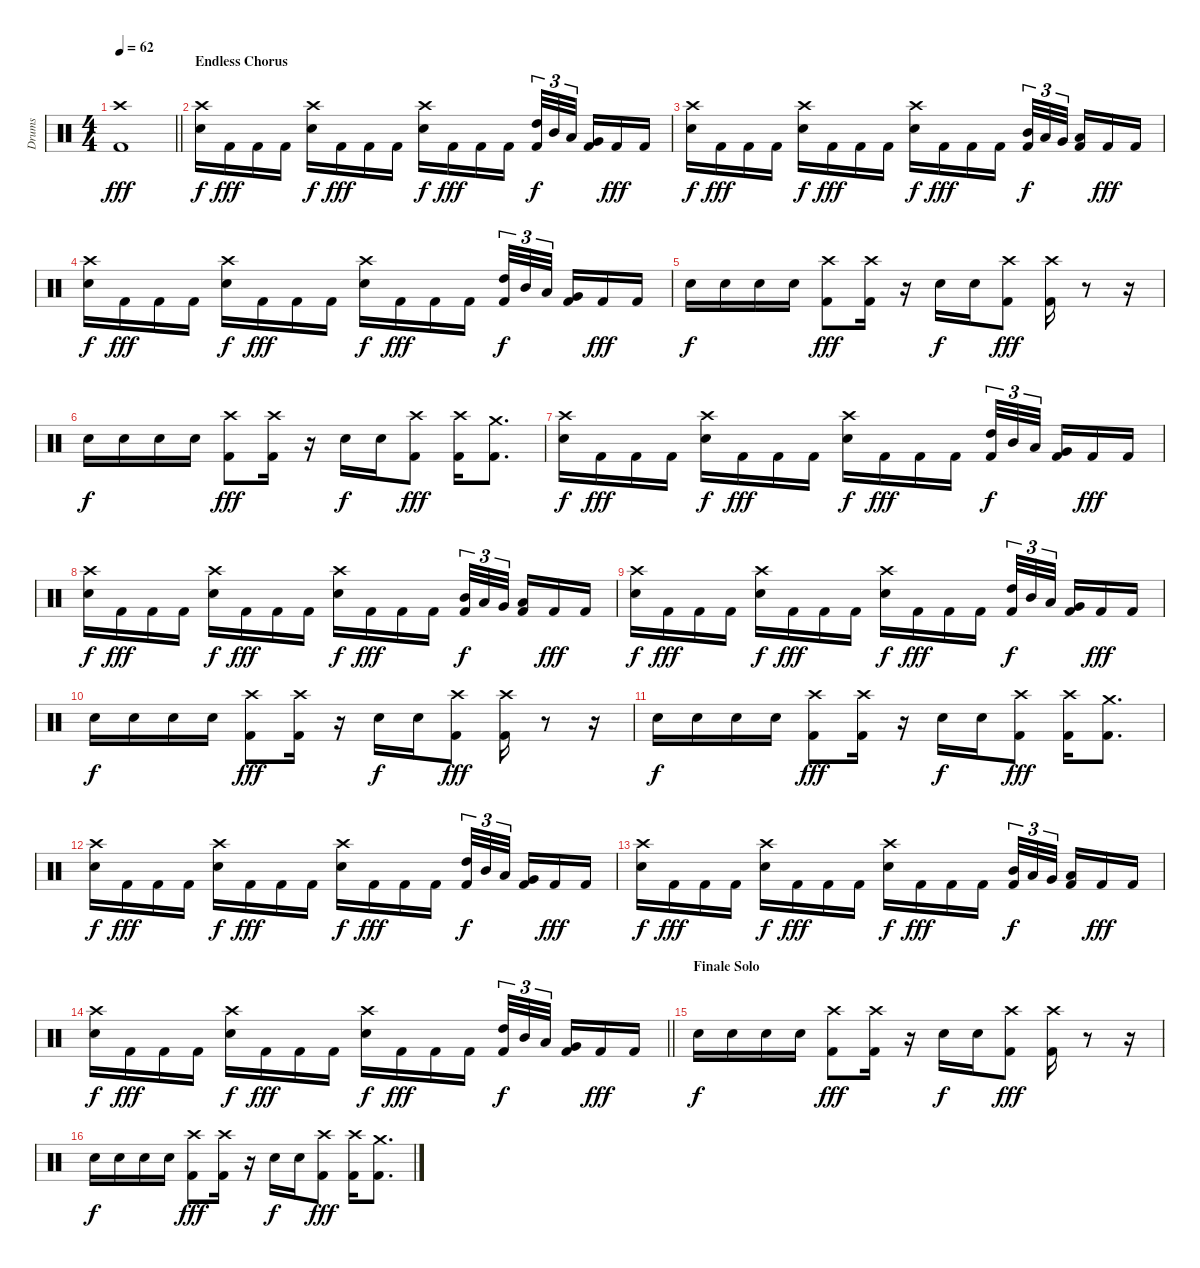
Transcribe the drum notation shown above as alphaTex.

\track ("Drums" "Drums") {instrument percussion}
\staff {score}
\articulation defaults
\ts (4 4)
\tempo 62
\clef neutral
\barLineRight lightlight
\ks c
("Crash high (hit)" "Kick (hit) 2").1{dy fff} |
\section ("" "Endless Chorus")
("Crash high (hit)" "Snare (hit) 2").16{dy f} "Kick (hit) 2".16{dy fff} "Kick (hit) 2".16 "Kick (hit) 2".16 ("Crash high (hit)" "Snare (hit) 2").16{dy f} "Kick (hit) 2".16{dy fff} "Kick (hit) 2".16 "Kick (hit) 2".16 ("Crash high (hit)" "Snare (hit) 2").16{dy f} "Kick (hit) 2".16{dy fff} "Kick (hit) 2".16 "Kick (hit) 2".16 ("High Tom (hit)" "Kick (hit) 2").32{tu (3 2) dy f} "Mid Tom (hit)".32{tu (3 2)} "Low Tom (hit)".32{tu (3 2) beam splitsecondary} ("Very Low Tom (hit)" "Kick (hit) 2").16 "Kick (hit) 2".16{dy fff} "Kick (hit) 2".16 |
("Crash high (hit)" "Snare (hit) 2").16{dy f} "Kick (hit) 2".16{dy fff} "Kick (hit) 2".16 "Kick (hit) 2".16 ("Crash high (hit)" "Snare (hit) 2").16{dy f} "Kick (hit) 2".16{dy fff} "Kick (hit) 2".16 "Kick (hit) 2".16 ("Crash high (hit)" "Snare (hit) 2").16{dy f} "Kick (hit) 2".16{dy fff} "Kick (hit) 2".16 "Kick (hit) 2".16 ("Mid Tom (hit)" "Kick (hit) 2").32{tu (3 2) dy f} "Low Tom (hit)".32{tu (3 2)} "Very Low Tom (hit)".32{tu (3 2) beam splitsecondary} ("Low Floor Tom (hit)" "Kick (hit) 2").16 "Kick (hit) 2".16{dy fff} "Kick (hit) 2".16 |
("Crash high (hit)" "Snare (hit) 2").16{dy f} "Kick (hit) 2".16{dy fff} "Kick (hit) 2".16 "Kick (hit) 2".16 ("Crash high (hit)" "Snare (hit) 2").16{dy f} "Kick (hit) 2".16{dy fff} "Kick (hit) 2".16 "Kick (hit) 2".16 ("Crash high (hit)" "Snare (hit) 2").16{dy f} "Kick (hit) 2".16{dy fff} "Kick (hit) 2".16 "Kick (hit) 2".16 ("High Tom (hit)" "Kick (hit) 2").32{tu (3 2) dy f} "Mid Tom (hit)".32{tu (3 2)} "Low Tom (hit)".32{tu (3 2) beam splitsecondary} ("Very Low Tom (hit)" "Kick (hit) 2").16 "Kick (hit) 2".16{dy fff} "Kick (hit) 2".16 |
"Snare (hit) 2".16{dy f} "Snare (hit) 2".16 "Snare (hit) 2".16 "Snare (hit) 2".16 ("Crash high (hit)" "Kick (hit) 2").8{dy fff} ("Crash high (hit)" "Kick (hit) 2").16 r.16{volume 0} "Snare (hit) 2".16{dy f volume 11} "Snare (hit) 2".16 ("Crash high (hit)" "Kick (hit) 2").8{dy fff} ("Crash high (hit)" "Kick (hit) 2").16 r.8{volume 0} r.16 |
"Snare (hit) 2".16{dy f volume 11} "Snare (hit) 2".16 "Snare (hit) 2".16 "Snare (hit) 2".16 ("Crash high (hit)" "Kick (hit) 2").8{dy fff} ("Crash high (hit)" "Kick (hit) 2").16 r.16{volume 0} "Snare (hit) 2".16{dy f volume 11} "Snare (hit) 2".16 ("Crash high (hit)" "Kick (hit) 2").8{dy fff} ("Crash high (hit)" "Kick (hit) 2").16 ("Crash medium (hit)" "Kick (hit) 2").8{d} |
("Crash high (hit)" "Snare (hit) 2").16{dy f} "Kick (hit) 2".16{dy fff} "Kick (hit) 2".16 "Kick (hit) 2".16 ("Crash high (hit)" "Snare (hit) 2").16{dy f} "Kick (hit) 2".16{dy fff} "Kick (hit) 2".16 "Kick (hit) 2".16 ("Crash high (hit)" "Snare (hit) 2").16{dy f} "Kick (hit) 2".16{dy fff} "Kick (hit) 2".16 "Kick (hit) 2".16 ("High Tom (hit)" "Kick (hit) 2").32{tu (3 2) dy f} "Mid Tom (hit)".32{tu (3 2)} "Low Tom (hit)".32{tu (3 2) beam splitsecondary} ("Very Low Tom (hit)" "Kick (hit) 2").16 "Kick (hit) 2".16{dy fff} "Kick (hit) 2".16 |
("Crash high (hit)" "Snare (hit) 2").16{dy f} "Kick (hit) 2".16{dy fff} "Kick (hit) 2".16 "Kick (hit) 2".16 ("Crash high (hit)" "Snare (hit) 2").16{dy f} "Kick (hit) 2".16{dy fff} "Kick (hit) 2".16 "Kick (hit) 2".16 ("Crash high (hit)" "Snare (hit) 2").16{dy f} "Kick (hit) 2".16{dy fff} "Kick (hit) 2".16 "Kick (hit) 2".16 ("Mid Tom (hit)" "Kick (hit) 2").32{tu (3 2) dy f} "Low Tom (hit)".32{tu (3 2)} "Very Low Tom (hit)".32{tu (3 2) beam splitsecondary} ("Low Floor Tom (hit)" "Kick (hit) 2").16 "Kick (hit) 2".16{dy fff} "Kick (hit) 2".16 |
("Crash high (hit)" "Snare (hit) 2").16{dy f} "Kick (hit) 2".16{dy fff} "Kick (hit) 2".16 "Kick (hit) 2".16 ("Crash high (hit)" "Snare (hit) 2").16{dy f} "Kick (hit) 2".16{dy fff} "Kick (hit) 2".16 "Kick (hit) 2".16 ("Crash high (hit)" "Snare (hit) 2").16{dy f} "Kick (hit) 2".16{dy fff} "Kick (hit) 2".16 "Kick (hit) 2".16 ("High Tom (hit)" "Kick (hit) 2").32{tu (3 2) dy f} "Mid Tom (hit)".32{tu (3 2)} "Low Tom (hit)".32{tu (3 2) beam splitsecondary} ("Very Low Tom (hit)" "Kick (hit) 2").16 "Kick (hit) 2".16{dy fff} "Kick (hit) 2".16 |
"Snare (hit) 2".16{dy f} "Snare (hit) 2".16 "Snare (hit) 2".16 "Snare (hit) 2".16 ("Crash high (hit)" "Kick (hit) 2").8{dy fff} ("Crash high (hit)" "Kick (hit) 2").16 r.16{volume 0} "Snare (hit) 2".16{dy f volume 11} "Snare (hit) 2".16 ("Crash high (hit)" "Kick (hit) 2").8{dy fff} ("Crash high (hit)" "Kick (hit) 2").16 r.8{volume 0} r.16 |
"Snare (hit) 2".16{dy f volume 11} "Snare (hit) 2".16 "Snare (hit) 2".16 "Snare (hit) 2".16 ("Crash high (hit)" "Kick (hit) 2").8{dy fff} ("Crash high (hit)" "Kick (hit) 2").16 r.16{volume 0} "Snare (hit) 2".16{dy f volume 11} "Snare (hit) 2".16 ("Crash high (hit)" "Kick (hit) 2").8{dy fff} ("Crash high (hit)" "Kick (hit) 2").16 ("Crash medium (hit)" "Kick (hit) 2").8{d} |
("Crash high (hit)" "Snare (hit) 2").16{dy f} "Kick (hit) 2".16{dy fff} "Kick (hit) 2".16 "Kick (hit) 2".16 ("Crash high (hit)" "Snare (hit) 2").16{dy f} "Kick (hit) 2".16{dy fff} "Kick (hit) 2".16 "Kick (hit) 2".16 ("Crash high (hit)" "Snare (hit) 2").16{dy f} "Kick (hit) 2".16{dy fff} "Kick (hit) 2".16 "Kick (hit) 2".16 ("High Tom (hit)" "Kick (hit) 2").32{tu (3 2) dy f} "Mid Tom (hit)".32{tu (3 2)} "Low Tom (hit)".32{tu (3 2) beam splitsecondary} ("Very Low Tom (hit)" "Kick (hit) 2").16 "Kick (hit) 2".16{dy fff} "Kick (hit) 2".16 |
("Crash high (hit)" "Snare (hit) 2").16{dy f} "Kick (hit) 2".16{dy fff} "Kick (hit) 2".16 "Kick (hit) 2".16 ("Crash high (hit)" "Snare (hit) 2").16{dy f} "Kick (hit) 2".16{dy fff} "Kick (hit) 2".16 "Kick (hit) 2".16 ("Crash high (hit)" "Snare (hit) 2").16{dy f} "Kick (hit) 2".16{dy fff} "Kick (hit) 2".16 "Kick (hit) 2".16 ("Mid Tom (hit)" "Kick (hit) 2").32{tu (3 2) dy f} "Low Tom (hit)".32{tu (3 2)} "Very Low Tom (hit)".32{tu (3 2) beam splitsecondary} ("Low Floor Tom (hit)" "Kick (hit) 2").16 "Kick (hit) 2".16{dy fff} "Kick (hit) 2".16 |
\barLineRight lightlight
("Crash high (hit)" "Snare (hit) 2").16{dy f} "Kick (hit) 2".16{dy fff} "Kick (hit) 2".16 "Kick (hit) 2".16 ("Crash high (hit)" "Snare (hit) 2").16{dy f} "Kick (hit) 2".16{dy fff} "Kick (hit) 2".16 "Kick (hit) 2".16 ("Crash high (hit)" "Snare (hit) 2").16{dy f} "Kick (hit) 2".16{dy fff} "Kick (hit) 2".16 "Kick (hit) 2".16 ("High Tom (hit)" "Kick (hit) 2").32{tu (3 2) dy f} "Mid Tom (hit)".32{tu (3 2)} "Low Tom (hit)".32{tu (3 2) beam splitsecondary} ("Very Low Tom (hit)" "Kick (hit) 2").16 "Kick (hit) 2".16{dy fff} "Kick (hit) 2".16 |
\section ("" "Finale Solo")
"Snare (hit) 2".16{dy f} "Snare (hit) 2".16 "Snare (hit) 2".16 "Snare (hit) 2".16 ("Crash high (hit)" "Kick (hit) 2").8{dy fff} ("Crash high (hit)" "Kick (hit) 2").16 r.16{volume 0} "Snare (hit) 2".16{dy f volume 11} "Snare (hit) 2".16 ("Crash high (hit)" "Kick (hit) 2").8{dy fff} ("Crash high (hit)" "Kick (hit) 2").16 r.8{volume 0} r.16 |
"Snare (hit) 2".16{dy f volume 11} "Snare (hit) 2".16 "Snare (hit) 2".16 "Snare (hit) 2".16 ("Crash high (hit)" "Kick (hit) 2").8{dy fff} ("Crash high (hit)" "Kick (hit) 2").16 r.16{volume 0} "Snare (hit) 2".16{dy f volume 11} "Snare (hit) 2".16 ("Crash high (hit)" "Kick (hit) 2").8{dy fff} ("Crash high (hit)" "Kick (hit) 2").16 ("Crash medium (hit)" "Kick (hit) 2").8{d}
